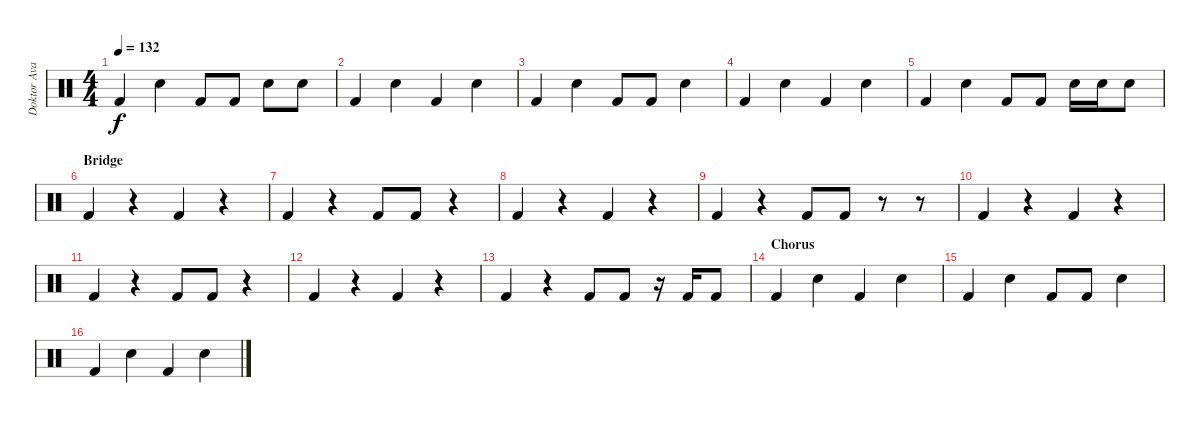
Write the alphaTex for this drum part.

\track ("Doktor Avalanche" "Doktor Ava") {instrument percussion}
\staff {score}
\articulation defaults
\ts (4 4)
\tempo 132
\clef neutral
\ks c "Kick (hit) 2".4{dy f} "Electric Snare (hit)".4 "Kick (hit) 2".8 "Kick (hit) 2".8 "Electric Snare (hit)".8 "Electric Snare (hit)".8
|
"Kick (hit) 2".4 "Electric Snare (hit)".4 "Kick (hit) 2".4 "Electric Snare (hit)".4 |
"Kick (hit) 2".4 "Electric Snare (hit)".4 "Kick (hit) 2".8 "Kick (hit) 2".8 "Electric Snare (hit)".4 |
"Kick (hit) 2".4 "Electric Snare (hit)".4 "Kick (hit) 2".4 "Electric Snare (hit)".4 |
"Kick (hit) 2".4 "Electric Snare (hit)".4 "Kick (hit) 2".8 "Kick (hit) 2".8 "Electric Snare (hit)".16 "Electric Snare (hit)".16 "Electric Snare (hit)".8 |
\section ("" "Bridge")
"Kick (hit) 2".4 r.4 "Kick (hit) 2".4 r.4 |
"Kick (hit) 2".4 r.4 "Kick (hit) 2".8 "Kick (hit) 2".8 r.4 |
"Kick (hit) 2".4 r.4 "Kick (hit) 2".4 r.4 |
"Kick (hit) 2".4 r.4 "Kick (hit) 2".8 "Kick (hit) 2".8 r.8 r.8 |
"Kick (hit) 2".4 r.4 "Kick (hit) 2".4 r.4 |
"Kick (hit) 2".4 r.4 "Kick (hit) 2".8 "Kick (hit) 2".8 r.4 |
"Kick (hit) 2".4 r.4 "Kick (hit) 2".4 r.4 |
"Kick (hit) 2".4 r.4 "Kick (hit) 2".8 "Kick (hit) 2".8 r.16 "Kick (hit) 2".16 "Kick (hit) 2".8 |
\section ("" "Chorus")
"Kick (hit) 2".4 "Electric Snare (hit)".4 "Kick (hit) 2".4 "Electric Snare (hit)".4 |
"Kick (hit) 2".4 "Electric Snare (hit)".4 "Kick (hit) 2".8 "Kick (hit) 2".8 "Electric Snare (hit)".4 |
"Kick (hit) 2".4 "Electric Snare (hit)".4 "Kick (hit) 2".4 "Electric Snare (hit)".4
